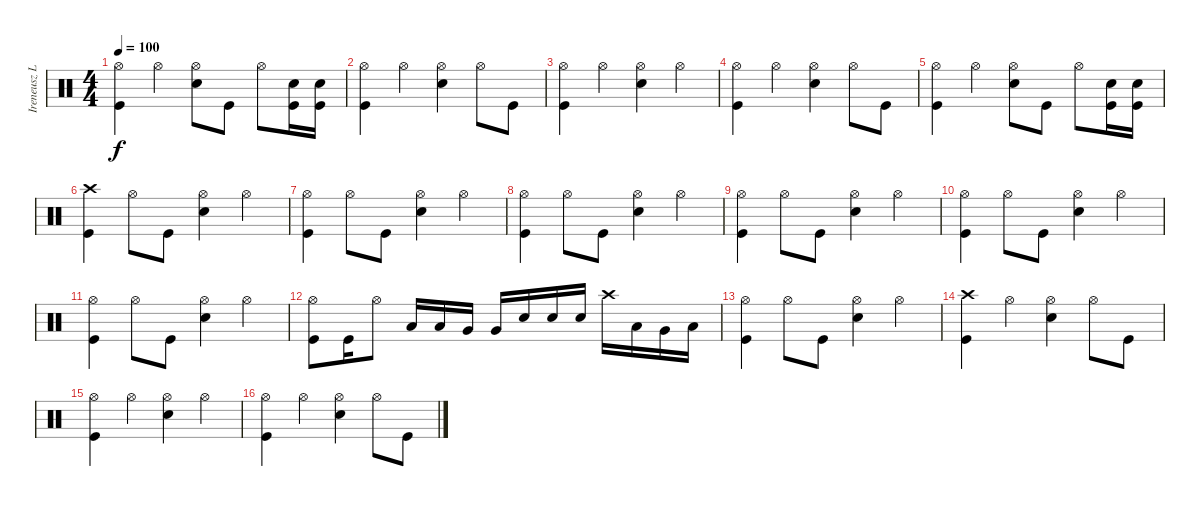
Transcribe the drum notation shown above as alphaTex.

\track ("Ireneusz Loth" "Ireneusz L") {instrument percussion}
\staff {score}
\articulation defaults
\ts (4 4)
\tempo 100
\clef neutral
\ks c
("Hi-Hat (open)" "Kick (hit)").4{dy f} "Hi-Hat (open)".4 ("Hi-Hat (open)" "Snare (hit) 2").8 "Kick (hit)".8 "Hi-Hat (open)".8 ("Snare (hit) 2" "Kick (hit)").16 ("Snare (hit) 2" "Kick (hit)").16 |
("Hi-Hat (open)" "Kick (hit)").4 "Hi-Hat (open)".4 ("Hi-Hat (open)" "Snare (hit) 2").4 "Hi-Hat (open)".8 "Kick (hit)".8 |
("Hi-Hat (open)" "Kick (hit)").4 "Hi-Hat (open)".4 ("Hi-Hat (open)" "Snare (hit) 2").4 "Hi-Hat (open)".4 |
("Hi-Hat (open)" "Kick (hit)").4 "Hi-Hat (open)".4 ("Hi-Hat (open)" "Snare (hit) 2").4 "Hi-Hat (open)".8 "Kick (hit)".8 |
("Hi-Hat (open)" "Kick (hit)").4 "Hi-Hat (open)".4 ("Hi-Hat (open)" "Snare (hit) 2").8 "Kick (hit)".8 "Hi-Hat (open)".8 ("Snare (hit) 2" "Kick (hit)").16 ("Snare (hit) 2" "Kick (hit)").16 |
("Crash high (hit)" "Kick (hit)").4 "Hi-Hat (open)".8 "Kick (hit)".8 ("Hi-Hat (open)" "Snare (hit) 2").4 "Hi-Hat (open)".4 |
("Hi-Hat (open)" "Kick (hit)").4 "Hi-Hat (open)".8 "Kick (hit)".8 ("Hi-Hat (open)" "Snare (hit) 2").4 "Hi-Hat (open)".4 |
("Hi-Hat (open)" "Kick (hit)").4 "Hi-Hat (open)".8 "Kick (hit)".8 ("Hi-Hat (open)" "Snare (hit) 2").4 "Hi-Hat (open)".4 |
("Hi-Hat (open)" "Kick (hit)").4 "Hi-Hat (open)".8 "Kick (hit)".8 ("Hi-Hat (open)" "Snare (hit) 2").4 "Hi-Hat (open)".4 |
("Hi-Hat (open)" "Kick (hit)").4 "Hi-Hat (open)".8 "Kick (hit)".8 ("Hi-Hat (open)" "Snare (hit) 2").4 "Hi-Hat (open)".4 |
("Hi-Hat (open)" "Kick (hit)").4 "Hi-Hat (open)".8 "Kick (hit)".8 ("Hi-Hat (open)" "Snare (hit) 2").4 "Hi-Hat (open)".4 |
("Hi-Hat (open)" "Kick (hit)").8 "Kick (hit)".16 "Hi-Hat (open)".8 "Low Tom (hit)".16 "Low Tom (hit)".16 "Very Low Tom (hit)".16 "Very Low Tom (hit)".16 "Snare (hit) 2".16 "Snare (hit) 2".16 "Snare (hit) 2".16 "Crash high (hit)".16 "Low Tom (hit)".16 "Very Low Tom (hit)".16 "Low Floor Tom (hit)".16 |
("Hi-Hat (open)" "Kick (hit)").4 "Hi-Hat (open)".8 "Kick (hit)".8 ("Hi-Hat (open)" "Snare (hit) 2").4 "Hi-Hat (open)".4 |
("Crash high (hit)" "Kick (hit)").4 "Hi-Hat (open)".4 ("Hi-Hat (open)" "Snare (hit) 2").4 "Hi-Hat (open)".8 "Kick (hit)".8 |
("Hi-Hat (open)" "Kick (hit)").4 "Hi-Hat (open)".4 ("Hi-Hat (open)" "Snare (hit) 2").4 "Hi-Hat (open)".4 |
("Hi-Hat (open)" "Kick (hit)").4 "Hi-Hat (open)".4 ("Hi-Hat (open)" "Snare (hit) 2").4 "Hi-Hat (open)".8 "Kick (hit)".8
